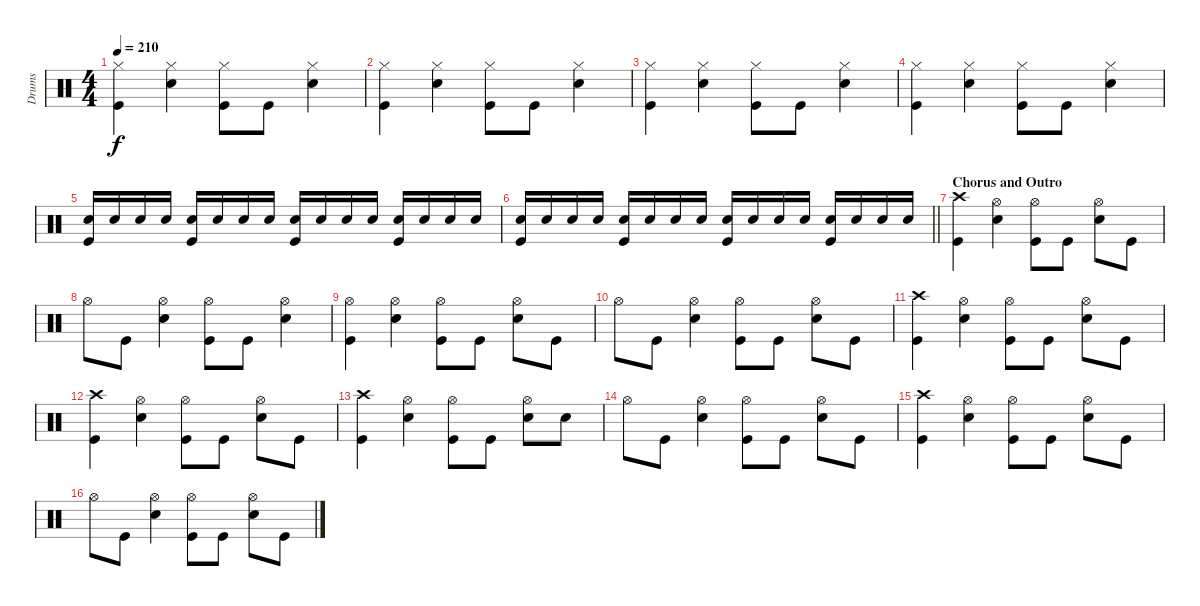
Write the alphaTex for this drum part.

\track ("Drums" "Drums") {instrument percussion}
\staff {score}
\articulation defaults
\ts (4 4)
\tempo 210
\clef neutral
\ks c
("Hi-Hat (closed)" "Kick (hit)").4{dy f} ("Hi-Hat (closed)" "Snare (hit) 2").4 ("Hi-Hat (closed)" "Kick (hit)").8 "Kick (hit)".8 ("Hi-Hat (closed)" "Snare (hit) 2").4 |
("Hi-Hat (closed)" "Kick (hit)").4 ("Hi-Hat (closed)" "Snare (hit) 2").4 ("Hi-Hat (closed)" "Kick (hit)").8 "Kick (hit)".8 ("Hi-Hat (closed)" "Snare (hit) 2").4 |
("Hi-Hat (closed)" "Kick (hit)").4 ("Hi-Hat (closed)" "Snare (hit) 2").4 ("Hi-Hat (closed)" "Kick (hit)").8 "Kick (hit)".8 ("Hi-Hat (closed)" "Snare (hit) 2").4 |
("Hi-Hat (closed)" "Kick (hit)").4 ("Hi-Hat (closed)" "Snare (hit) 2").4 ("Hi-Hat (closed)" "Kick (hit)").8 "Kick (hit)".8 ("Hi-Hat (closed)" "Snare (hit) 2").4 |
("Snare (hit) 2" "Kick (hit)").16 "Snare (hit) 2".16 "Snare (hit) 2".16 "Snare (hit) 2".16 ("Snare (hit) 2" "Kick (hit)").16 "Snare (hit) 2".16 "Snare (hit) 2".16 "Snare (hit) 2".16 ("Snare (hit) 2" "Kick (hit)").16 "Snare (hit) 2".16 "Snare (hit) 2".16 "Snare (hit) 2".16 ("Snare (hit) 2" "Kick (hit)").16 "Snare (hit) 2".16 "Snare (hit) 2".16 "Snare (hit) 2".16 |
\barLineRight lightlight
("Snare (hit) 2" "Kick (hit)").16 "Snare (hit) 2".16 "Snare (hit) 2".16 "Snare (hit) 2".16 ("Snare (hit) 2" "Kick (hit)").16 "Snare (hit) 2".16 "Snare (hit) 2".16 "Snare (hit) 2".16 ("Snare (hit) 2" "Kick (hit)").16 "Snare (hit) 2".16 "Snare (hit) 2".16 "Snare (hit) 2".16 ("Snare (hit) 2" "Kick (hit)").16 "Snare (hit) 2".16 "Snare (hit) 2".16 "Snare (hit) 2".16 |
\section ("" "Chorus and Outro")
("Crash high (hit)" "Kick (hit)").4 ("Hi-Hat (open)" "Snare (hit) 2").4 ("Hi-Hat (open)" "Kick (hit)").8 "Kick (hit)".8 ("Hi-Hat (open)" "Snare (hit) 2").8 "Kick (hit)".8 |
"Hi-Hat (open)".8 "Kick (hit)".8 ("Hi-Hat (open)" "Snare (hit) 2").4 ("Hi-Hat (open)" "Kick (hit)").8 "Kick (hit)".8 ("Hi-Hat (open)" "Snare (hit) 2").4 |
("Hi-Hat (open)" "Kick (hit)").4 ("Hi-Hat (open)" "Snare (hit) 2").4 ("Hi-Hat (open)" "Kick (hit)").8 "Kick (hit)".8 ("Hi-Hat (open)" "Snare (hit) 2").8 "Kick (hit)".8 |
"Hi-Hat (open)".8 "Kick (hit)".8 ("Hi-Hat (open)" "Snare (hit) 2").4 ("Hi-Hat (open)" "Kick (hit)").8 "Kick (hit)".8 ("Hi-Hat (open)" "Snare (hit) 2").8 "Kick (hit)".8 |
("Crash high (hit)" "Kick (hit)").4 ("Hi-Hat (open)" "Snare (hit) 2").4 ("Hi-Hat (open)" "Kick (hit)").8 "Kick (hit)".8 ("Hi-Hat (open)" "Snare (hit) 2").8 "Kick (hit)".8 |
("Crash high (hit)" "Kick (hit)").4 ("Hi-Hat (open)" "Snare (hit) 2").4 ("Hi-Hat (open)" "Kick (hit)").8 "Kick (hit)".8 ("Hi-Hat (open)" "Snare (hit) 2").8 "Kick (hit)".8 |
("Crash high (hit)" "Kick (hit)").4 ("Hi-Hat (open)" "Snare (hit) 2").4 ("Hi-Hat (open)" "Kick (hit)").8 "Kick (hit)".8 ("Hi-Hat (open)" "Snare (hit) 2").8 "Snare (hit) 2".8 |
"Hi-Hat (open)".8 "Kick (hit)".8 ("Hi-Hat (open)" "Snare (hit) 2").4 ("Hi-Hat (open)" "Kick (hit)").8 "Kick (hit)".8 ("Hi-Hat (open)" "Snare (hit) 2").8 "Kick (hit)".8 |
("Crash high (hit)" "Kick (hit)").4 ("Hi-Hat (open)" "Snare (hit) 2").4 ("Hi-Hat (open)" "Kick (hit)").8 "Kick (hit)".8 ("Hi-Hat (open)" "Snare (hit) 2").8 "Kick (hit)".8 |
"Hi-Hat (open)".8 "Kick (hit)".8 ("Hi-Hat (open)" "Snare (hit) 2").4 ("Hi-Hat (open)" "Kick (hit)").8 "Kick (hit)".8 ("Hi-Hat (open)" "Snare (hit) 2").8 "Kick (hit)".8
